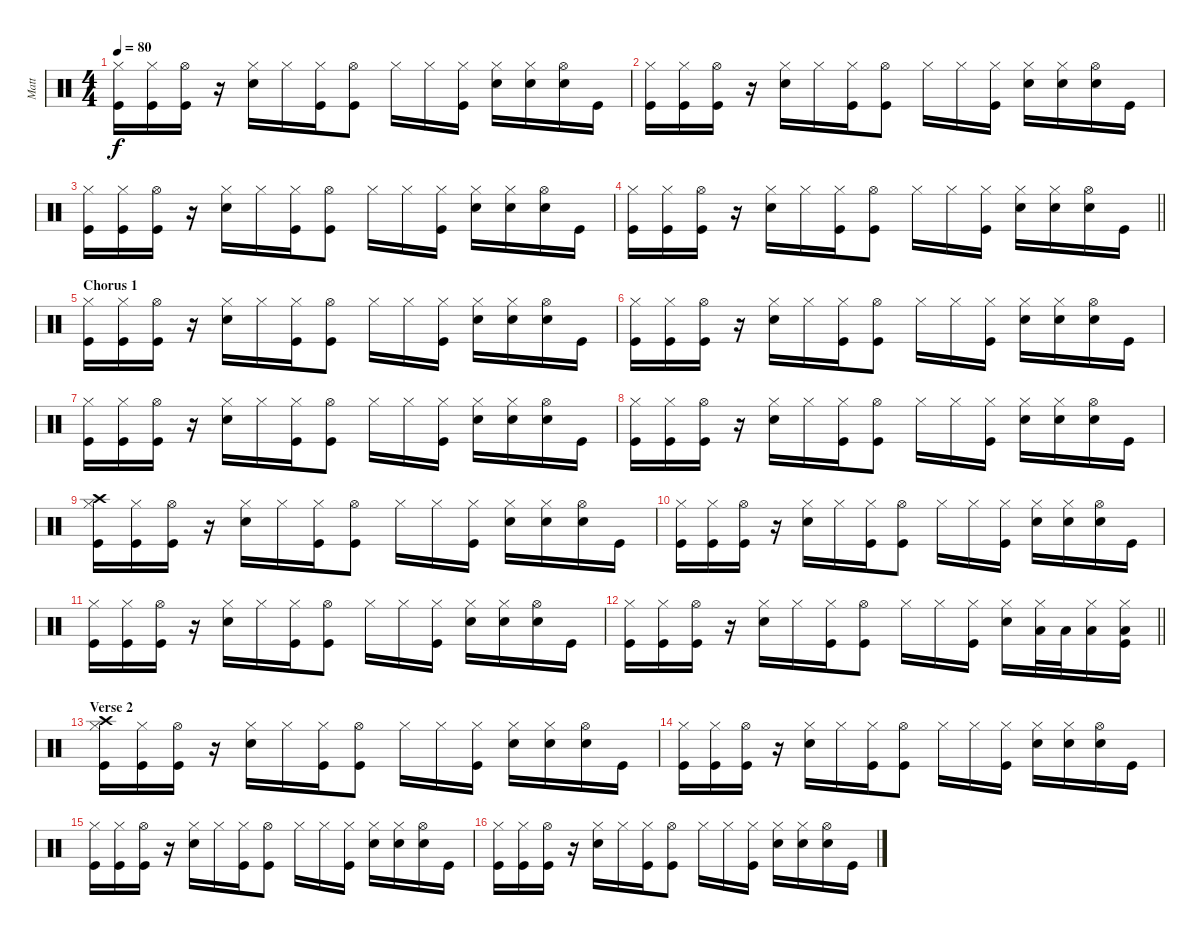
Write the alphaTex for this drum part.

\track ("Matt" "Matt") {instrument percussion}
\staff {score}
\articulation defaults
\ts (4 4)
\tempo 80
\clef neutral
\ks c
("Hi-Hat (closed)" "Kick (hit)").16{dy f} ("Hi-Hat (closed)" "Kick (hit)").16 ("Hi-Hat (open)" "Kick (hit)").16 r.16 ("Hi-Hat (closed)" "Electric Snare (hit)").16 "Hi-Hat (closed)".16 ("Hi-Hat (closed)" "Kick (hit)").16 ("Hi-Hat (open)" "Kick (hit)").8 "Hi-Hat (closed)".16 "Hi-Hat (closed)".16 ("Hi-Hat (closed)" "Kick (hit)").16 ("Hi-Hat (closed)" "Electric Snare (hit)").16 ("Hi-Hat (closed)" "Electric Snare (hit)").16 ("Hi-Hat (open)" "Electric Snare (hit)").16 "Kick (hit)".16 |
("Hi-Hat (closed)" "Kick (hit)").16 ("Hi-Hat (closed)" "Kick (hit)").16 ("Hi-Hat (open)" "Kick (hit)").16 r.16 ("Hi-Hat (closed)" "Electric Snare (hit)").16 "Hi-Hat (closed)".16 ("Hi-Hat (closed)" "Kick (hit)").16 ("Hi-Hat (open)" "Kick (hit)").8 "Hi-Hat (closed)".16 "Hi-Hat (closed)".16 ("Hi-Hat (closed)" "Kick (hit)").16 ("Hi-Hat (closed)" "Electric Snare (hit)").16 ("Hi-Hat (closed)" "Electric Snare (hit)").16 ("Hi-Hat (open)" "Electric Snare (hit)").16 "Kick (hit)".16 |
("Hi-Hat (closed)" "Kick (hit)").16 ("Hi-Hat (closed)" "Kick (hit)").16 ("Hi-Hat (open)" "Kick (hit)").16 r.16 ("Hi-Hat (closed)" "Electric Snare (hit)").16 "Hi-Hat (closed)".16 ("Hi-Hat (closed)" "Kick (hit)").16 ("Hi-Hat (open)" "Kick (hit)").8 "Hi-Hat (closed)".16 "Hi-Hat (closed)".16 ("Hi-Hat (closed)" "Kick (hit)").16 ("Hi-Hat (closed)" "Electric Snare (hit)").16 ("Hi-Hat (closed)" "Electric Snare (hit)").16 ("Hi-Hat (open)" "Electric Snare (hit)").16 "Kick (hit)".16 |
\barLineRight lightlight
("Hi-Hat (closed)" "Kick (hit)").16 ("Hi-Hat (closed)" "Kick (hit)").16 ("Hi-Hat (open)" "Kick (hit)").16 r.16 ("Hi-Hat (closed)" "Electric Snare (hit)").16 "Hi-Hat (closed)".16 ("Hi-Hat (closed)" "Kick (hit)").16 ("Hi-Hat (open)" "Kick (hit)").8 "Hi-Hat (closed)".16 "Hi-Hat (closed)".16 ("Hi-Hat (closed)" "Kick (hit)").16 ("Hi-Hat (closed)" "Electric Snare (hit)").16 ("Hi-Hat (closed)" "Electric Snare (hit)").16 ("Hi-Hat (open)" "Electric Snare (hit)").16 "Kick (hit)".16 |
\section ("" "Chorus 1")
("Hi-Hat (closed)" "Kick (hit)").16 ("Hi-Hat (closed)" "Kick (hit)").16 ("Hi-Hat (open)" "Kick (hit)").16 r.16 ("Hi-Hat (closed)" "Electric Snare (hit)").16 "Hi-Hat (closed)".16 ("Hi-Hat (closed)" "Kick (hit)").16 ("Hi-Hat (open)" "Kick (hit)").8 "Hi-Hat (closed)".16 "Hi-Hat (closed)".16 ("Hi-Hat (closed)" "Kick (hit)").16 ("Hi-Hat (closed)" "Electric Snare (hit)").16 ("Hi-Hat (closed)" "Electric Snare (hit)").16 ("Hi-Hat (open)" "Electric Snare (hit)").16 "Kick (hit)".16 |
("Hi-Hat (closed)" "Kick (hit)").16 ("Hi-Hat (closed)" "Kick (hit)").16 ("Hi-Hat (open)" "Kick (hit)").16 r.16 ("Hi-Hat (closed)" "Electric Snare (hit)").16 "Hi-Hat (closed)".16 ("Hi-Hat (closed)" "Kick (hit)").16 ("Hi-Hat (open)" "Kick (hit)").8 "Hi-Hat (closed)".16 "Hi-Hat (closed)".16 ("Hi-Hat (closed)" "Kick (hit)").16 ("Hi-Hat (closed)" "Electric Snare (hit)").16 ("Hi-Hat (closed)" "Electric Snare (hit)").16 ("Hi-Hat (open)" "Electric Snare (hit)").16 "Kick (hit)".16 |
("Hi-Hat (closed)" "Kick (hit)").16 ("Hi-Hat (closed)" "Kick (hit)").16 ("Hi-Hat (open)" "Kick (hit)").16 r.16 ("Hi-Hat (closed)" "Electric Snare (hit)").16 "Hi-Hat (closed)".16 ("Hi-Hat (closed)" "Kick (hit)").16 ("Hi-Hat (open)" "Kick (hit)").8 "Hi-Hat (closed)".16 "Hi-Hat (closed)".16 ("Hi-Hat (closed)" "Kick (hit)").16 ("Hi-Hat (closed)" "Electric Snare (hit)").16 ("Hi-Hat (closed)" "Electric Snare (hit)").16 ("Hi-Hat (open)" "Electric Snare (hit)").16 "Kick (hit)".16 |
("Hi-Hat (closed)" "Kick (hit)").16 ("Hi-Hat (closed)" "Kick (hit)").16 ("Hi-Hat (open)" "Kick (hit)").16 r.16 ("Hi-Hat (closed)" "Electric Snare (hit)").16 "Hi-Hat (closed)".16 ("Hi-Hat (closed)" "Kick (hit)").16 ("Hi-Hat (open)" "Kick (hit)").8 "Hi-Hat (closed)".16 "Hi-Hat (closed)".16 ("Hi-Hat (closed)" "Kick (hit)").16 ("Hi-Hat (closed)" "Electric Snare (hit)").16 ("Hi-Hat (closed)" "Electric Snare (hit)").16 ("Hi-Hat (open)" "Electric Snare (hit)").16 "Kick (hit)".16 |
("Crash high (hit)" "Hi-Hat (closed)" "Kick (hit)").16 ("Hi-Hat (closed)" "Kick (hit)").16 ("Hi-Hat (open)" "Kick (hit)").16 r.16 ("Hi-Hat (closed)" "Electric Snare (hit)").16 "Hi-Hat (closed)".16 ("Hi-Hat (closed)" "Kick (hit)").16 ("Hi-Hat (open)" "Kick (hit)").8 "Hi-Hat (closed)".16 "Hi-Hat (closed)".16 ("Hi-Hat (closed)" "Kick (hit)").16 ("Hi-Hat (closed)" "Electric Snare (hit)").16 ("Hi-Hat (closed)" "Electric Snare (hit)").16 ("Hi-Hat (open)" "Electric Snare (hit)").16 "Kick (hit)".16 |
("Hi-Hat (closed)" "Kick (hit)").16 ("Hi-Hat (closed)" "Kick (hit)").16 ("Hi-Hat (open)" "Kick (hit)").16 r.16 ("Hi-Hat (closed)" "Electric Snare (hit)").16 "Hi-Hat (closed)".16 ("Hi-Hat (closed)" "Kick (hit)").16 ("Hi-Hat (open)" "Kick (hit)").8 "Hi-Hat (closed)".16 "Hi-Hat (closed)".16 ("Hi-Hat (closed)" "Kick (hit)").16 ("Hi-Hat (closed)" "Electric Snare (hit)").16 ("Hi-Hat (closed)" "Electric Snare (hit)").16 ("Hi-Hat (open)" "Electric Snare (hit)").16 "Kick (hit)".16 |
("Hi-Hat (closed)" "Kick (hit)").16 ("Hi-Hat (closed)" "Kick (hit)").16 ("Hi-Hat (open)" "Kick (hit)").16 r.16 ("Hi-Hat (closed)" "Electric Snare (hit)").16 "Hi-Hat (closed)".16 ("Hi-Hat (closed)" "Kick (hit)").16 ("Hi-Hat (open)" "Kick (hit)").8 "Hi-Hat (closed)".16 "Hi-Hat (closed)".16 ("Hi-Hat (closed)" "Kick (hit)").16 ("Hi-Hat (closed)" "Electric Snare (hit)").16 ("Hi-Hat (closed)" "Electric Snare (hit)").16 ("Hi-Hat (open)" "Electric Snare (hit)").16 "Kick (hit)".16 |
\barLineRight lightlight
("Hi-Hat (closed)" "Kick (hit)").16 ("Hi-Hat (closed)" "Kick (hit)").16 ("Hi-Hat (open)" "Kick (hit)").16 r.16 ("Hi-Hat (closed)" "Electric Snare (hit)").16 "Hi-Hat (closed)".16 ("Hi-Hat (closed)" "Kick (hit)").16 ("Hi-Hat (open)" "Kick (hit)").8 "Hi-Hat (closed)".16 "Hi-Hat (closed)".16 ("Hi-Hat (closed)" "Kick (hit)").16 ("Hi-Hat (closed)" "Electric Snare (hit)").16 ("Hi-Hat (closed)" "Low Tom (hit)").32 "Low Tom (hit)".32 ("Hi-Hat (closed)" "Low Tom (hit)").16 ("Hi-Hat (closed)" "Low Floor Tom (hit)" "Kick (hit)").16 |
\section ("" "Verse 2")
("Crash high (hit)" "Hi-Hat (closed)" "Kick (hit)").16 ("Hi-Hat (closed)" "Kick (hit)").16 ("Hi-Hat (open)" "Kick (hit)").16 r.16 ("Hi-Hat (closed)" "Electric Snare (hit)").16 "Hi-Hat (closed)".16 ("Hi-Hat (closed)" "Kick (hit)").16 ("Hi-Hat (open)" "Kick (hit)").8 "Hi-Hat (closed)".16 "Hi-Hat (closed)".16 ("Hi-Hat (closed)" "Kick (hit)").16 ("Hi-Hat (closed)" "Electric Snare (hit)").16 ("Hi-Hat (closed)" "Electric Snare (hit)").16 ("Hi-Hat (open)" "Electric Snare (hit)").16 "Kick (hit)".16 |
("Hi-Hat (closed)" "Kick (hit)").16 ("Hi-Hat (closed)" "Kick (hit)").16 ("Hi-Hat (open)" "Kick (hit)").16 r.16 ("Hi-Hat (closed)" "Electric Snare (hit)").16 "Hi-Hat (closed)".16 ("Hi-Hat (closed)" "Kick (hit)").16 ("Hi-Hat (open)" "Kick (hit)").8 "Hi-Hat (closed)".16 "Hi-Hat (closed)".16 ("Hi-Hat (closed)" "Kick (hit)").16 ("Hi-Hat (closed)" "Electric Snare (hit)").16 ("Hi-Hat (closed)" "Electric Snare (hit)").16 ("Hi-Hat (open)" "Electric Snare (hit)").16 "Kick (hit)".16 |
("Hi-Hat (closed)" "Kick (hit)").16 ("Hi-Hat (closed)" "Kick (hit)").16 ("Hi-Hat (open)" "Kick (hit)").16 r.16 ("Hi-Hat (closed)" "Electric Snare (hit)").16 "Hi-Hat (closed)".16 ("Hi-Hat (closed)" "Kick (hit)").16 ("Hi-Hat (open)" "Kick (hit)").8 "Hi-Hat (closed)".16 "Hi-Hat (closed)".16 ("Hi-Hat (closed)" "Kick (hit)").16 ("Hi-Hat (closed)" "Electric Snare (hit)").16 ("Hi-Hat (closed)" "Electric Snare (hit)").16 ("Hi-Hat (open)" "Electric Snare (hit)").16 "Kick (hit)".16 |
("Hi-Hat (closed)" "Kick (hit)").16 ("Hi-Hat (closed)" "Kick (hit)").16 ("Hi-Hat (open)" "Kick (hit)").16 r.16 ("Hi-Hat (closed)" "Electric Snare (hit)").16 "Hi-Hat (closed)".16 ("Hi-Hat (closed)" "Kick (hit)").16 ("Hi-Hat (open)" "Kick (hit)").8 "Hi-Hat (closed)".16 "Hi-Hat (closed)".16 ("Hi-Hat (closed)" "Kick (hit)").16 ("Hi-Hat (closed)" "Electric Snare (hit)").16 ("Hi-Hat (closed)" "Electric Snare (hit)").16 ("Hi-Hat (open)" "Electric Snare (hit)").16 "Kick (hit)".16
